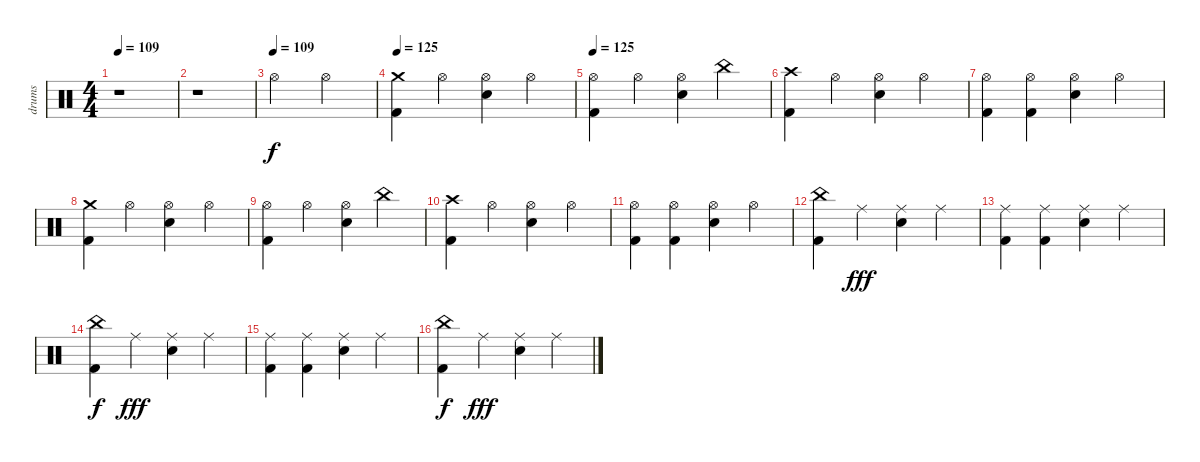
\track ("drums" "drums") {instrument percussion}
\staff {score}
\articulation defaults
\ts (4 4)
\tempo 109
\clef neutral
\ks c
r.1{dy ff} |
r.1 |
\tempo (109)
"Hi-Hat (open)".2{dy f} "Hi-Hat (open)".2 |
\tempo 125
("Kick (hit) 2" "Crash medium (hit)").4 "Hi-Hat (open)".4 ("Snare (hit) 2" "Hi-Hat (open)").4 "Hi-Hat (open)".4 |
\tempo 125
("Kick (hit) 2" "Hi-Hat (open)").4 "Hi-Hat (open)".4 ("Snare (hit) 2" "Hi-Hat (open)").4 "China (hit)".4 |
("Kick (hit) 2" "Crash high (hit)").4 "Hi-Hat (open)".4 ("Snare (hit) 2" "Hi-Hat (open)").4 "Hi-Hat (open)".4 |
("Kick (hit) 2" "Hi-Hat (open)").4 ("Kick (hit) 2" "Hi-Hat (open)").4 ("Snare (hit) 2" "Hi-Hat (open)").4 "Hi-Hat (open)".4 |
("Kick (hit) 2" "Crash medium (hit)").4 "Hi-Hat (open)".4 ("Snare (hit) 2" "Hi-Hat (open)").4 "Hi-Hat (open)".4 |
("Kick (hit) 2" "Hi-Hat (open)").4 "Hi-Hat (open)".4 ("Snare (hit) 2" "Hi-Hat (open)").4 "China (hit)".4 |
("Kick (hit) 2" "Crash high (hit)").4 "Hi-Hat (open)".4 ("Snare (hit) 2" "Hi-Hat (open)").4 "Hi-Hat (open)".4 |
("Kick (hit) 2" "Hi-Hat (open)").4 ("Kick (hit) 2" "Hi-Hat (open)").4 ("Snare (hit) 2" "Hi-Hat (open)").4 "Hi-Hat (open)".4 |
("China (hit)" "Kick (hit) 2").4 "Ride (middle)".4{dy fff} ("Ride (middle)" "Snare (hit) 2").4 "Ride (middle)".4 |
("Kick (hit) 2" "Ride (middle)").4 ("Kick (hit) 2" "Ride (middle)").4 ("Snare (hit) 2" "Ride (middle)").4 "Ride (middle)".4 |
("China (hit)" "Kick (hit) 2").4{dy f} "Ride (middle)".4{dy fff} ("Ride (middle)" "Snare (hit) 2").4 "Ride (middle)".4 |
("Kick (hit) 2" "Ride (middle)").4 ("Kick (hit) 2" "Ride (middle)").4 ("Snare (hit) 2" "Ride (middle)").4 "Ride (middle)".4 |
("China (hit)" "Kick (hit) 2").4{dy f} "Ride (middle)".4{dy fff} ("Ride (middle)" "Snare (hit) 2").4 "Ride (middle)".4
